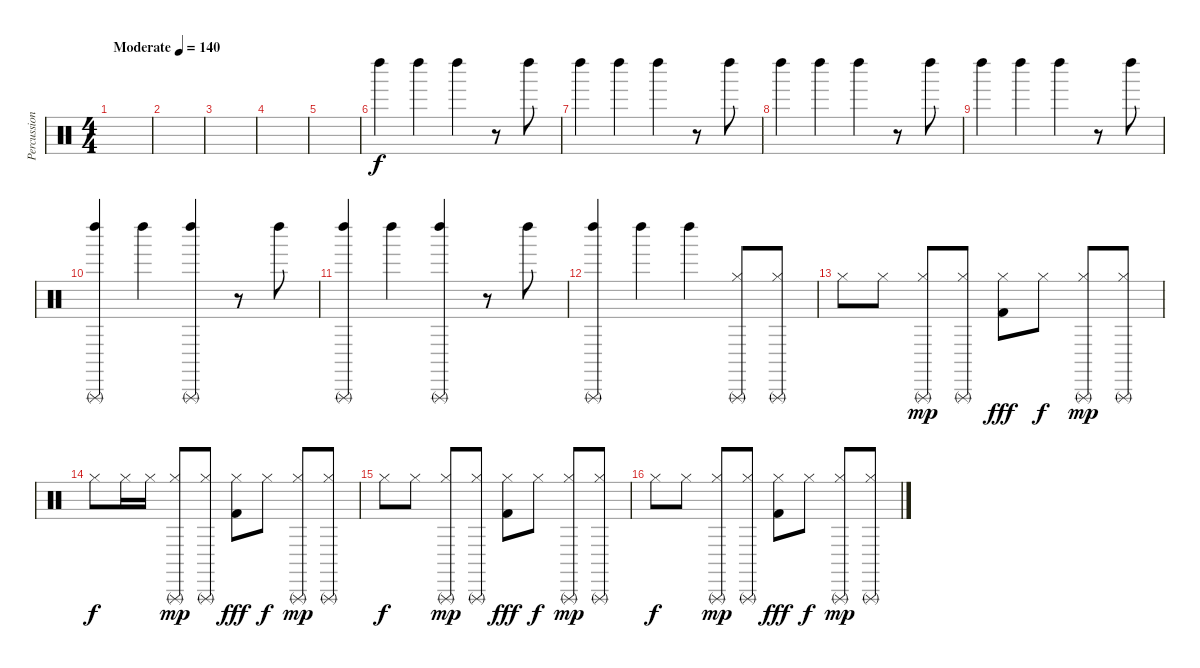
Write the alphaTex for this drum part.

\track ("Percussion" "Percussion") {instrument percussion}
\staff {score}
\articulation defaults
\ts (4 4)
\tempo (140 "Moderate")
\clef neutral
\ks c
|
|
|
|
|
"Left Maraca (hit)".4 "Left Maraca (hit)".4 "Left Maraca (hit)".4 r.8 "Left Maraca (hit)".8 |
"Left Maraca (hit)".4 "Left Maraca (hit)".4 "Left Maraca (hit)".4 r.8 "Left Maraca (hit)".8 |
"Left Maraca (hit)".4 "Left Maraca (hit)".4 "Left Maraca (hit)".4 r.8 "Left Maraca (hit)".8 |
"Left Maraca (hit)".4 "Left Maraca (hit)".4 "Left Maraca (hit)".4 r.8 "Left Maraca (hit)".8 |
("Triangle (rnute)" "Left Maraca (hit)").4 "Left Maraca (hit)".4 ("Triangle (rnute)" "Left Maraca (hit)").4 r.8 "Left Maraca (hit)".8 |
("Triangle (rnute)" "Left Maraca (hit)").4 "Left Maraca (hit)".4 ("Triangle (rnute)" "Left Maraca (hit)").4 r.8 "Left Maraca (hit)".8 |
("Triangle (rnute)" "Left Maraca (hit)").4 "Left Maraca (hit)".4 "Left Maraca (hit)".4 ("Triangle (rnute)" "Hi-Hat (closed)").8 ("Triangle (rnute)" "Hi-Hat (closed)").8 |
"Hi-Hat (closed)".8{dy f} "Hi-Hat (closed)".8 ("Triangle (rnute)" "Hi-Hat (closed)").8{dy mp} ("Triangle (rnute)" "Hi-Hat (closed)").8 ("Hi-Hat (closed)" "Kick (hit) 2").8{dy fff} "Hi-Hat (closed)".8{dy f} ("Triangle (rnute)" "Hi-Hat (closed)").8{dy mp} ("Triangle (rnute)" "Hi-Hat (closed)").8 |
"Hi-Hat (closed)".8{dy f} "Hi-Hat (closed)".16 "Hi-Hat (closed)".16 ("Triangle (rnute)" "Hi-Hat (closed)").8{dy mp} ("Triangle (rnute)" "Hi-Hat (closed)").8 ("Hi-Hat (closed)" "Kick (hit) 2").8{dy fff} "Hi-Hat (closed)".8{dy f} ("Triangle (rnute)" "Hi-Hat (closed)").8{dy mp} ("Triangle (rnute)" "Hi-Hat (closed)").8 |
"Hi-Hat (closed)".8{dy f} "Hi-Hat (closed)".8 ("Triangle (rnute)" "Hi-Hat (closed)").8{dy mp} ("Triangle (rnute)" "Hi-Hat (closed)").8 ("Hi-Hat (closed)" "Kick (hit) 2").8{dy fff} "Hi-Hat (closed)".8{dy f} ("Triangle (rnute)" "Hi-Hat (closed)").8{dy mp} ("Triangle (rnute)" "Hi-Hat (closed)").8 |
"Hi-Hat (closed)".8{dy f} "Hi-Hat (closed)".8 ("Triangle (rnute)" "Hi-Hat (closed)").8{dy mp} ("Triangle (rnute)" "Hi-Hat (closed)").8 ("Hi-Hat (closed)" "Kick (hit) 2").8{dy fff} "Hi-Hat (closed)".8{dy f} ("Triangle (rnute)" "Hi-Hat (closed)").8{dy mp} ("Triangle (rnute)" "Hi-Hat (closed)").8
